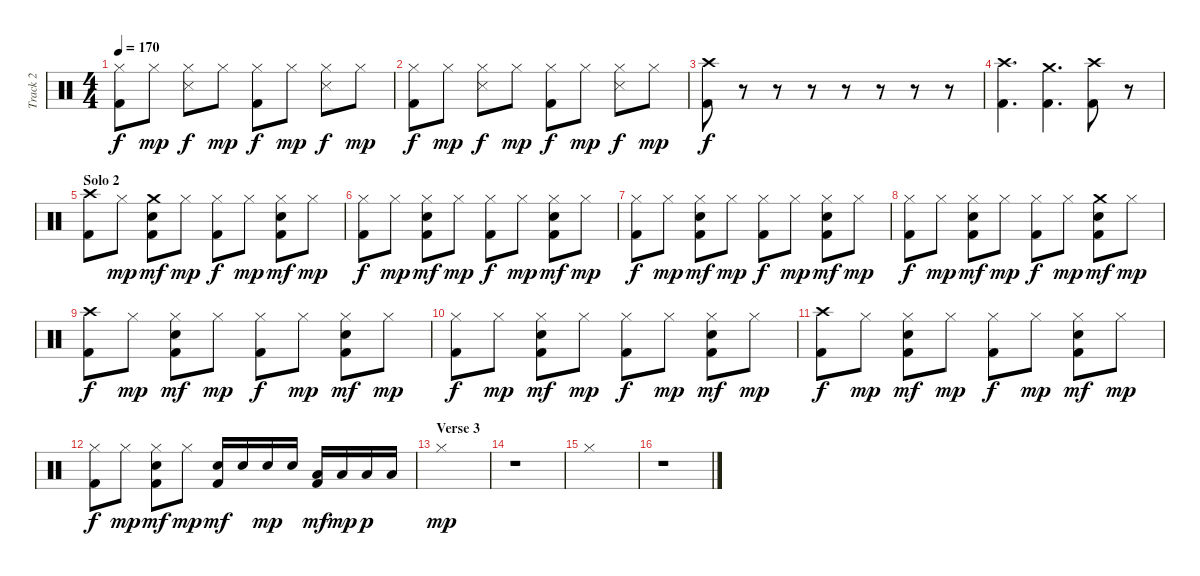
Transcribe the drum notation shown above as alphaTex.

\track ("Track 2" "Track 2") {instrument percussion}
\staff {score}
\articulation defaults
\ts (4 4)
\tempo 170
\clef neutral
\ks c
("Hi-Hat (closed)" "Kick (hit) 2").8{dy f} "Hi-Hat (closed)".8{dy mp} ("Hi-Hat (closed)" "Snare (side stick) 3").8{dy f} "Hi-Hat (closed)".8{dy mp} ("Hi-Hat (closed)" "Kick (hit) 2").8{dy f} "Hi-Hat (closed)".8{dy mp} ("Hi-Hat (closed)" "Snare (side stick) 3").8{dy f} "Hi-Hat (closed)".8{dy mp} |
("Hi-Hat (closed)" "Kick (hit) 2").8{dy f} "Hi-Hat (closed)".8{dy mp} ("Hi-Hat (closed)" "Snare (side stick) 3").8{dy f} "Hi-Hat (closed)".8{dy mp} ("Hi-Hat (closed)" "Kick (hit) 2").8{dy f} "Hi-Hat (closed)".8{dy mp} ("Hi-Hat (closed)" "Snare (side stick) 3").8{dy f} "Hi-Hat (closed)".8{dy mp} |
("Crash high (hit)" "Kick (hit) 2").8{dy f} r.8 r.8 r.8 r.8 r.8 r.8 r.8 |
("Crash high (hit)" "Kick (hit) 2").4{d} ("Crash medium (hit)" "Kick (hit) 2").4{d} ("Crash high (hit)" "Kick (hit) 2").8 r.8 |
\section ("" "Solo 2")
("Crash high (hit)" "Kick (hit) 2").8 "Hi-Hat (closed)".8{dy mp} ("Crash medium (hit)" "Electric Snare (hit)" "Kick (hit) 2").8{dy mf} "Hi-Hat (closed)".8{dy mp} ("Hi-Hat (closed)" "Kick (hit) 2").8{dy f} "Hi-Hat (closed)".8{dy mp} ("Hi-Hat (closed)" "Electric Snare (hit)" "Kick (hit) 2").8{dy mf} "Hi-Hat (closed)".8{dy mp} |
("Hi-Hat (closed)" "Kick (hit) 2").8{dy f} "Hi-Hat (closed)".8{dy mp} ("Hi-Hat (closed)" "Electric Snare (hit)" "Kick (hit) 2").8{dy mf} "Hi-Hat (closed)".8{dy mp} ("Hi-Hat (closed)" "Kick (hit) 2").8{dy f} "Hi-Hat (closed)".8{dy mp} ("Hi-Hat (closed)" "Electric Snare (hit)" "Kick (hit) 2").8{dy mf} "Hi-Hat (closed)".8{dy mp} |
("Hi-Hat (closed)" "Kick (hit) 2").8{dy f} "Hi-Hat (closed)".8{dy mp} ("Hi-Hat (closed)" "Electric Snare (hit)" "Kick (hit) 2").8{dy mf} "Hi-Hat (closed)".8{dy mp} ("Hi-Hat (closed)" "Kick (hit) 2").8{dy f} "Hi-Hat (closed)".8{dy mp} ("Hi-Hat (closed)" "Electric Snare (hit)" "Kick (hit) 2").8{dy mf} "Hi-Hat (closed)".8{dy mp} |
("Hi-Hat (closed)" "Kick (hit) 2").8{dy f} "Hi-Hat (closed)".8{dy mp} ("Hi-Hat (closed)" "Electric Snare (hit)" "Kick (hit) 2").8{dy mf} "Hi-Hat (closed)".8{dy mp} ("Hi-Hat (closed)" "Kick (hit) 2").8{dy f} "Hi-Hat (closed)".8{dy mp} ("Crash medium (hit)" "Electric Snare (hit)" "Kick (hit) 2").8{dy mf} "Hi-Hat (closed)".8{dy mp} |
("Crash high (hit)" "Kick (hit) 2").8{dy f} "Hi-Hat (closed)".8{dy mp} ("Hi-Hat (closed)" "Electric Snare (hit)" "Kick (hit) 2").8{dy mf} "Hi-Hat (closed)".8{dy mp} ("Hi-Hat (closed)" "Kick (hit) 2").8{dy f} "Hi-Hat (closed)".8{dy mp} ("Hi-Hat (closed)" "Electric Snare (hit)" "Kick (hit) 2").8{dy mf} "Hi-Hat (closed)".8{dy mp} |
("Hi-Hat (closed)" "Kick (hit) 2").8{dy f} "Hi-Hat (closed)".8{dy mp} ("Hi-Hat (closed)" "Electric Snare (hit)" "Kick (hit) 2").8{dy mf} "Hi-Hat (closed)".8{dy mp} ("Hi-Hat (closed)" "Kick (hit) 2").8{dy f} "Hi-Hat (closed)".8{dy mp} ("Hi-Hat (closed)" "Electric Snare (hit)" "Kick (hit) 2").8{dy mf} "Hi-Hat (closed)".8{dy mp} |
("Crash high (hit)" "Kick (hit) 2").8{dy f} "Hi-Hat (closed)".8{dy mp} ("Hi-Hat (closed)" "Electric Snare (hit)" "Kick (hit) 2").8{dy mf} "Hi-Hat (closed)".8{dy mp} ("Hi-Hat (closed)" "Kick (hit) 2").8{dy f} "Hi-Hat (closed)".8{dy mp} ("Hi-Hat (closed)" "Electric Snare (hit)" "Kick (hit) 2").8{dy mf} "Hi-Hat (closed)".8{dy mp} |
("Hi-Hat (closed)" "Kick (hit) 2").8{dy f} "Hi-Hat (closed)".8{dy mp} ("Hi-Hat (closed)" "Electric Snare (hit)" "Kick (hit) 2").8{dy mf} "Hi-Hat (closed)".8{dy mp} ("Electric Snare (hit)" "Kick (hit) 2").16{dy mf} "Electric Snare (hit)".16 "Electric Snare (hit)".16{dy mp} "Electric Snare (hit)".16 ("Low Tom (hit)" "Kick (hit) 2").16{dy mf} "Low Tom (hit)".16{dy mp} "Low Tom (hit)".16{dy p} "Low Tom (hit)".16 |
\section ("" "Verse 3")
"Hi-Hat (closed)".1{dy mp} |
r.1 |
"Hi-Hat (closed)".1 |
r.1
